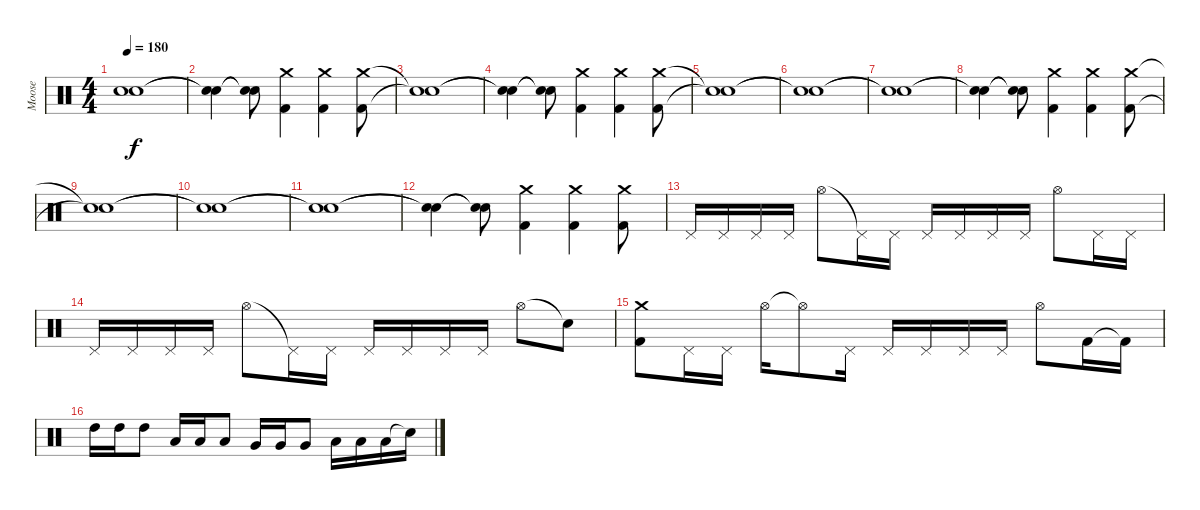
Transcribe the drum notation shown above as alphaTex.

\track ("Moose" "Moose") {instrument percussion}
\staff {score}
\articulation defaults
\ts (4 4)
\tempo 180
\clef neutral
\ks c
("Snare (hit)"{t} "Snare (hit)"{t}).1{dy f} |
("Snare (hit)"{t} "Snare (hit)"{t}).4 ("Snare (hit)"{t} "Snare (hit)"{t}).8 ("Crash medium (hit)" "Kick (hit) 2").4 ("Crash medium (hit)" "Kick (hit) 2").4 ("Crash medium (hit)" "Kick (hit) 2").8 |
("Snare (hit)"{t} "Snare (hit)"{t}).1 |
("Snare (hit)"{t} "Snare (hit)"{t}).4 ("Snare (hit)"{t} "Snare (hit)"{t}).8 ("Crash medium (hit)" "Kick (hit) 2").4 ("Crash medium (hit)" "Kick (hit) 2").4 ("Crash medium (hit)" "Kick (hit) 2").8 |
("Snare (hit)"{t} "Snare (hit)"{t}).1 |
("Snare (hit)"{t} "Snare (hit)"{t}).1 |
("Snare (hit)"{t} "Snare (hit)"{t}).1 |
("Snare (hit)"{t} "Snare (hit)"{t}).4 ("Snare (hit)"{t} "Snare (hit)"{t}).8 ("Crash medium (hit)" "Kick (hit) 2").4 ("Crash medium (hit)" "Kick (hit) 2").4 ("Crash medium (hit)" "Kick (hit) 2").8 |
("Snare (hit)"{t} "Snare (hit)"{t}).1 |
("Snare (hit)"{t} "Snare (hit)"{t}).1 |
("Snare (hit)"{t} "Snare (hit)"{t}).1 |
("Snare (hit)"{t} "Snare (hit)"{t}).4 ("Snare (hit)"{t} "Snare (hit)"{t}).8 ("Crash medium (hit)" "Kick (hit) 2").4 ("Crash medium (hit)" "Kick (hit) 2").4 ("Crash medium (hit)" "Kick (hit) 2").8 |
"Pedal Hi-Hat (hit)".16 "Pedal Hi-Hat (hit)".16 "Pedal Hi-Hat (hit)".16 "Pedal Hi-Hat (hit)".16 "Hi-Hat (open)".8 "Pedal Hi-Hat (hit)"{t}.16 "Pedal Hi-Hat (hit)".16 "Pedal Hi-Hat (hit)".16 "Pedal Hi-Hat (hit)".16 "Pedal Hi-Hat (hit)".16 "Pedal Hi-Hat (hit)".16 "Hi-Hat (open)".8 "Pedal Hi-Hat (hit)".16 "Pedal Hi-Hat (hit)".16 |
"Pedal Hi-Hat (hit)".16 "Pedal Hi-Hat (hit)".16 "Pedal Hi-Hat (hit)".16 "Pedal Hi-Hat (hit)".16 "Hi-Hat (open)".8 "Pedal Hi-Hat (hit)"{t}.16 "Pedal Hi-Hat (hit)".16 "Pedal Hi-Hat (hit)".16 "Pedal Hi-Hat (hit)".16 "Pedal Hi-Hat (hit)".16 "Pedal Hi-Hat (hit)".16 "Hi-Hat (open)".8 "Snare (hit)"{t}.8 |
("Crash medium (hit)" "Kick (hit) 2").8 "Pedal Hi-Hat (hit)".16 "Pedal Hi-Hat (hit)".16 "Hi-Hat (open)".16 "Hi-Hat (open)"{t}.8 "Pedal Hi-Hat (hit)".16 "Pedal Hi-Hat (hit)".16 "Pedal Hi-Hat (hit)".16 "Pedal Hi-Hat (hit)".16 "Pedal Hi-Hat (hit)".16 "Hi-Hat (open)".8 "Kick (hit) 2".16 "Kick (hit) 2"{t}.16 |
"High Tom (hit)".16 "High Tom (hit)".16 "High Tom (hit)".8 "Low Tom (hit)".16 "Low Tom (hit)".16 "Low Tom (hit)".8 "Very Low Tom (hit)".16 "Very Low Tom (hit)".16 "Very Low Tom (hit)".8 "Low Floor Tom (hit)".16 "Low Floor Tom (hit)".16 "Low Floor Tom (hit)".16 "Snare (hit)"{t}.16
